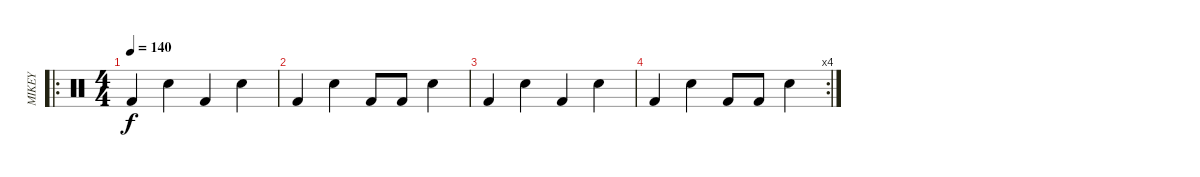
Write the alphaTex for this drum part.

\track ("MIKEY" "MIKEY") {instrument percussion}
\staff {score}
\articulation defaults
\ro
\ts (4 4)
\tempo 140
\clef neutral
\ks c "Kick (hit) 2".4{dy f} "Hand Clap (hit)".4 "Kick (hit) 2".4 "Hand Clap (hit)".4
|
"Kick (hit) 2".4 "Hand Clap (hit)".4 "Kick (hit) 2".8 "Kick (hit) 2".8 "Hand Clap (hit)".4 |
"Kick (hit) 2".4 "Hand Clap (hit)".4 "Kick (hit) 2".4 "Hand Clap (hit)".4 |
\rc 4 "Kick (hit) 2".4 "Hand Clap (hit)".4 "Kick (hit) 2".8 "Kick (hit) 2".8 "Hand Clap (hit)".4
